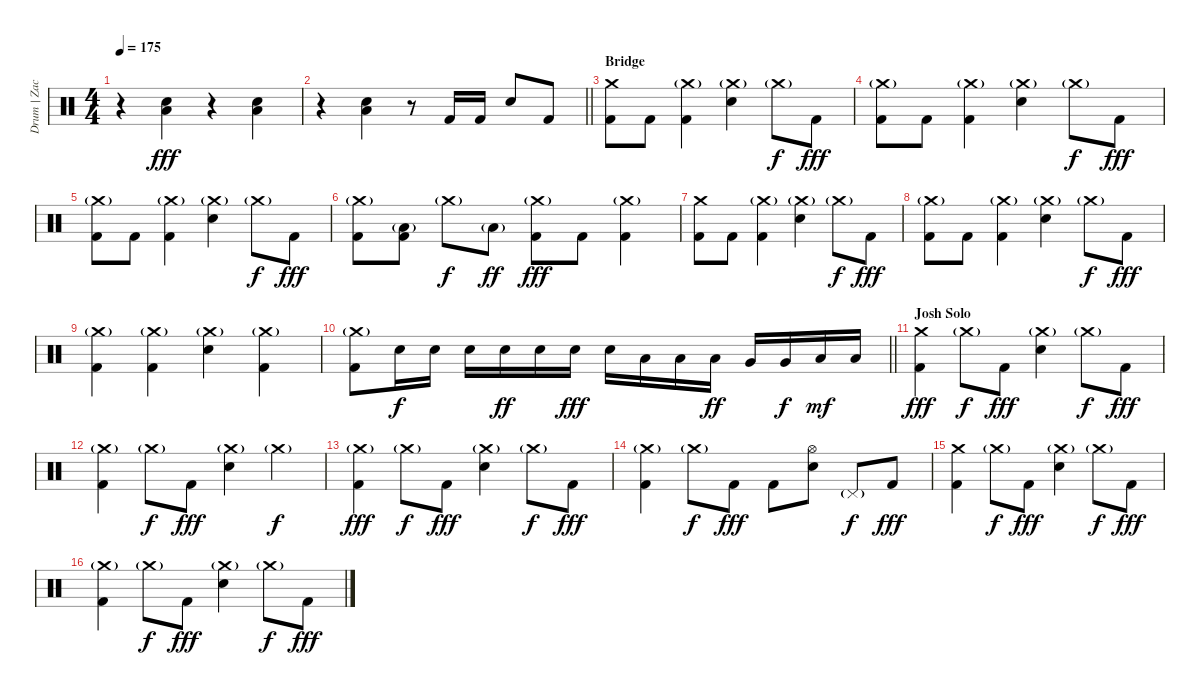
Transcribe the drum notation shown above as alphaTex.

\track ("Drum | Zac" "Drum | Zac") {instrument percussion}
\staff {score}
\articulation defaults
\ts (4 4)
\tempo 175
\clef neutral
\ks c
r.4{dy fff} ("Low Floor Tom (hit)" "Electric Snare (hit)").4 r.4 ("Low Floor Tom (hit)" "Electric Snare (hit)").4 |
\barLineRight lightlight
r.4 ("Low Floor Tom (hit)" "Electric Snare (hit)").4 r.8 "Kick (hit) 2".16 "Kick (hit) 2".16 "Electric Snare (hit)".8 "Kick (hit) 2".8 |
\section ("" "Bridge")
("Crash medium (hit)" "Kick (hit) 2").8 "Kick (hit) 2".8 ("Crash medium (hit)"{g} "Kick (hit) 2").4 ("Crash medium (hit)"{g} "Electric Snare (hit)").4 "Crash medium (hit)"{g}.8{dy f} "Kick (hit) 2".8{dy fff} |
("Crash medium (hit)"{g} "Kick (hit) 2").8 "Kick (hit) 2".8 ("Crash medium (hit)"{g} "Kick (hit) 2").4 ("Crash medium (hit)"{g} "Electric Snare (hit)").4 "Crash medium (hit)"{g}.8{dy f} "Kick (hit) 2".8{dy fff} |
("Crash medium (hit)"{g} "Kick (hit) 2").8 "Kick (hit) 2".8 ("Crash medium (hit)"{g} "Kick (hit) 2").4 ("Crash medium (hit)"{g} "Electric Snare (hit)").4 "Crash medium (hit)"{g}.8{dy f} "Kick (hit) 2".8{dy fff} |
("Crash medium (hit)"{g} "Kick (hit) 2").8 ("Low Tom (hit)"{g} "Kick (hit) 2").8 "Crash medium (hit)"{g}.8{dy f} "Low Tom (hit)"{g}.8{dy ff} ("Crash medium (hit)"{g} "Kick (hit) 2").8{dy fff} "Kick (hit) 2".8 ("Crash medium (hit)"{g} "Kick (hit) 2").4 |
("Crash medium (hit)" "Kick (hit) 2").8 "Kick (hit) 2".8 ("Crash medium (hit)"{g} "Kick (hit) 2").4 ("Crash medium (hit)"{g} "Electric Snare (hit)").4 "Crash medium (hit)"{g}.8{dy f} "Kick (hit) 2".8{dy fff} |
("Crash medium (hit)"{g} "Kick (hit) 2").8 "Kick (hit) 2".8 ("Crash medium (hit)"{g} "Kick (hit) 2").4 ("Crash medium (hit)"{g} "Electric Snare (hit)").4 "Crash medium (hit)"{g}.8{dy f} "Kick (hit) 2".8{dy fff} |
("Crash medium (hit)"{g} "Kick (hit) 2").4 ("Crash medium (hit)"{g} "Kick (hit) 2").4 ("Crash medium (hit)"{g} "Electric Snare (hit)").4 ("Crash medium (hit)"{g} "Kick (hit) 2").4 |
\barLineRight lightlight
("Crash medium (hit)"{g} "Kick (hit) 2").8 "Electric Snare (hit)".16{dy f} "Electric Snare (hit)".16 "Electric Snare (hit)".16 "Electric Snare (hit)".16{dy ff} "Electric Snare (hit)".16 "Electric Snare (hit)".16{dy fff} "Electric Snare (hit)".16 "Low Tom (hit)".16 "Low Tom (hit)".16 "Low Tom (hit)".16{dy ff} "Very Low Tom (hit)".16 "Very Low Tom (hit)".16{dy f} "Low Floor Tom (hit)".16{dy mf} "Low Floor Tom (hit)".16 |
\section ("" "Josh Solo")
("Crash medium (hit)" "Kick (hit) 2").4{dy fff} "Crash medium (hit)"{g}.8{dy f} "Kick (hit) 2".8{dy fff} ("Crash medium (hit)"{g} "Electric Snare (hit)").4 "Crash medium (hit)"{g}.8{dy f} "Kick (hit) 2".8{dy fff} |
("Crash medium (hit)"{g} "Kick (hit) 2").4 "Crash medium (hit)"{g}.8{dy f} "Kick (hit) 2".8{dy fff} ("Crash medium (hit)"{g} "Electric Snare (hit)").4 "Crash medium (hit)"{g}.4{dy f} |
("Crash medium (hit)"{g} "Kick (hit) 2").4{dy fff} "Crash medium (hit)"{g}.8{dy f} "Kick (hit) 2".8{dy fff} ("Crash medium (hit)"{g} "Electric Snare (hit)").4 "Crash medium (hit)"{g}.8{dy f} "Kick (hit) 2".8{dy fff} |
("Crash medium (hit)"{g} "Kick (hit) 2").4 "Crash medium (hit)"{g}.8{dy f} "Kick (hit) 2".8{dy fff} "Kick (hit) 2".8 ("Hi-Hat (open)" "Electric Snare (hit)").8 "Pedal Hi-Hat (hit)"{g}.8{dy f} "Kick (hit) 2".8{dy fff} |
("Crash medium (hit)" "Kick (hit) 2").4 "Crash medium (hit)"{g}.8{dy f} "Kick (hit) 2".8{dy fff} ("Crash medium (hit)"{g} "Electric Snare (hit)").4 "Crash medium (hit)"{g}.8{dy f} "Kick (hit) 2".8{dy fff} |
("Crash medium (hit)"{g} "Kick (hit) 2").4 "Crash medium (hit)"{g}.8{dy f} "Kick (hit) 2".8{dy fff} ("Crash medium (hit)"{g} "Electric Snare (hit)").4 "Crash medium (hit)"{g}.8{dy f} "Kick (hit) 2".8{dy fff}
